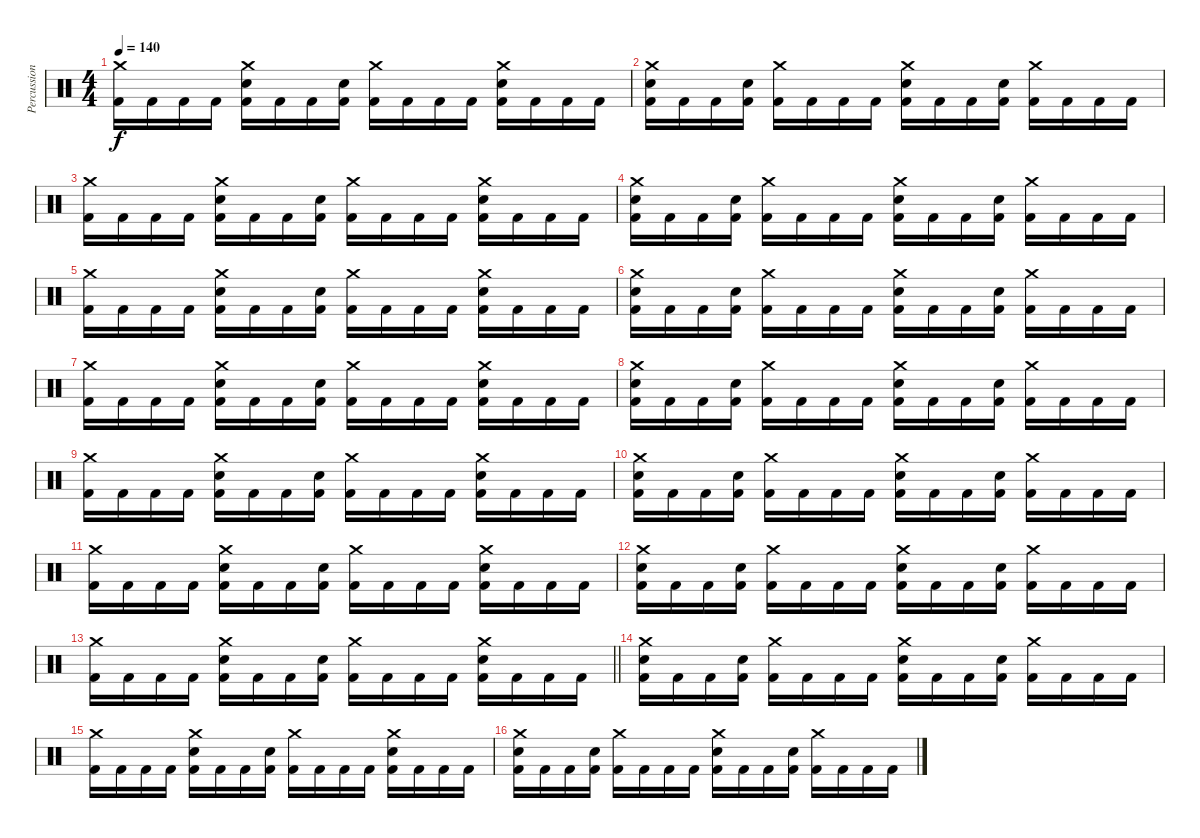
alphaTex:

\track ("Percussion" "Percussion") {instrument percussion}
\staff {score}
\articulation defaults
\ts (4 4)
\tempo 140
\clef neutral
\ks c
("Crash medium (hit)" "Kick (hit) 2").16{dy f} "Kick (hit) 2".16 "Kick (hit) 2".16 "Kick (hit) 2".16 ("Crash medium (hit)" "Snare (hit) 2" "Kick (hit) 2").16 "Kick (hit) 2".16 "Kick (hit) 2".16 ("Snare (hit) 2" "Kick (hit) 2").16 ("Crash medium (hit)" "Kick (hit) 2").16 "Kick (hit) 2".16 "Kick (hit) 2".16 "Kick (hit) 2".16 ("Crash medium (hit)" "Snare (hit) 2" "Kick (hit) 2").16 "Kick (hit) 2".16 "Kick (hit) 2".16 "Kick (hit) 2".16 |
("Crash medium (hit)" "Snare (hit) 2" "Kick (hit) 2").16 "Kick (hit) 2".16 "Kick (hit) 2".16 ("Snare (hit) 2" "Kick (hit) 2").16 ("Crash medium (hit)" "Kick (hit) 2").16 "Kick (hit) 2".16 "Kick (hit) 2".16 "Kick (hit) 2".16 ("Crash medium (hit)" "Snare (hit) 2" "Kick (hit) 2").16 "Kick (hit) 2".16 "Kick (hit) 2".16 ("Snare (hit) 2" "Kick (hit) 2").16 ("Crash medium (hit)" "Kick (hit) 2").16 "Kick (hit) 2".16 "Kick (hit) 2".16 "Kick (hit) 2".16 |
("Crash medium (hit)" "Kick (hit) 2").16 "Kick (hit) 2".16 "Kick (hit) 2".16 "Kick (hit) 2".16 ("Crash medium (hit)" "Snare (hit) 2" "Kick (hit) 2").16 "Kick (hit) 2".16 "Kick (hit) 2".16 ("Snare (hit) 2" "Kick (hit) 2").16 ("Crash medium (hit)" "Kick (hit) 2").16 "Kick (hit) 2".16 "Kick (hit) 2".16 "Kick (hit) 2".16 ("Crash medium (hit)" "Snare (hit) 2" "Kick (hit) 2").16 "Kick (hit) 2".16 "Kick (hit) 2".16 "Kick (hit) 2".16 |
("Crash medium (hit)" "Snare (hit) 2" "Kick (hit) 2").16 "Kick (hit) 2".16 "Kick (hit) 2".16 ("Snare (hit) 2" "Kick (hit) 2").16 ("Crash medium (hit)" "Kick (hit) 2").16 "Kick (hit) 2".16 "Kick (hit) 2".16 "Kick (hit) 2".16 ("Crash medium (hit)" "Snare (hit) 2" "Kick (hit) 2").16 "Kick (hit) 2".16 "Kick (hit) 2".16 ("Snare (hit) 2" "Kick (hit) 2").16 ("Crash medium (hit)" "Kick (hit) 2").16 "Kick (hit) 2".16 "Kick (hit) 2".16 "Kick (hit) 2".16 |
("Crash medium (hit)" "Kick (hit) 2").16 "Kick (hit) 2".16 "Kick (hit) 2".16 "Kick (hit) 2".16 ("Crash medium (hit)" "Snare (hit) 2" "Kick (hit) 2").16 "Kick (hit) 2".16 "Kick (hit) 2".16 ("Snare (hit) 2" "Kick (hit) 2").16 ("Crash medium (hit)" "Kick (hit) 2").16 "Kick (hit) 2".16 "Kick (hit) 2".16 "Kick (hit) 2".16 ("Crash medium (hit)" "Snare (hit) 2" "Kick (hit) 2").16 "Kick (hit) 2".16 "Kick (hit) 2".16 "Kick (hit) 2".16 |
("Crash medium (hit)" "Snare (hit) 2" "Kick (hit) 2").16 "Kick (hit) 2".16 "Kick (hit) 2".16 ("Snare (hit) 2" "Kick (hit) 2").16 ("Crash medium (hit)" "Kick (hit) 2").16 "Kick (hit) 2".16 "Kick (hit) 2".16 "Kick (hit) 2".16 ("Crash medium (hit)" "Snare (hit) 2" "Kick (hit) 2").16 "Kick (hit) 2".16 "Kick (hit) 2".16 ("Snare (hit) 2" "Kick (hit) 2").16 ("Crash medium (hit)" "Kick (hit) 2").16 "Kick (hit) 2".16 "Kick (hit) 2".16 "Kick (hit) 2".16 |
("Crash medium (hit)" "Kick (hit) 2").16 "Kick (hit) 2".16 "Kick (hit) 2".16 "Kick (hit) 2".16 ("Crash medium (hit)" "Snare (hit) 2" "Kick (hit) 2").16 "Kick (hit) 2".16 "Kick (hit) 2".16 ("Snare (hit) 2" "Kick (hit) 2").16 ("Crash medium (hit)" "Kick (hit) 2").16 "Kick (hit) 2".16 "Kick (hit) 2".16 "Kick (hit) 2".16 ("Crash medium (hit)" "Snare (hit) 2" "Kick (hit) 2").16 "Kick (hit) 2".16 "Kick (hit) 2".16 "Kick (hit) 2".16 |
("Crash medium (hit)" "Snare (hit) 2" "Kick (hit) 2").16 "Kick (hit) 2".16 "Kick (hit) 2".16 ("Snare (hit) 2" "Kick (hit) 2").16 ("Crash medium (hit)" "Kick (hit) 2").16 "Kick (hit) 2".16 "Kick (hit) 2".16 "Kick (hit) 2".16 ("Crash medium (hit)" "Snare (hit) 2" "Kick (hit) 2").16 "Kick (hit) 2".16 "Kick (hit) 2".16 ("Snare (hit) 2" "Kick (hit) 2").16 ("Crash medium (hit)" "Kick (hit) 2").16 "Kick (hit) 2".16 "Kick (hit) 2".16 "Kick (hit) 2".16 |
("Crash medium (hit)" "Kick (hit) 2").16 "Kick (hit) 2".16 "Kick (hit) 2".16 "Kick (hit) 2".16 ("Crash medium (hit)" "Snare (hit) 2" "Kick (hit) 2").16 "Kick (hit) 2".16 "Kick (hit) 2".16 ("Snare (hit) 2" "Kick (hit) 2").16 ("Crash medium (hit)" "Kick (hit) 2").16 "Kick (hit) 2".16 "Kick (hit) 2".16 "Kick (hit) 2".16 ("Crash medium (hit)" "Snare (hit) 2" "Kick (hit) 2").16 "Kick (hit) 2".16 "Kick (hit) 2".16 "Kick (hit) 2".16 |
("Crash medium (hit)" "Snare (hit) 2" "Kick (hit) 2").16 "Kick (hit) 2".16 "Kick (hit) 2".16 ("Snare (hit) 2" "Kick (hit) 2").16 ("Crash medium (hit)" "Kick (hit) 2").16 "Kick (hit) 2".16 "Kick (hit) 2".16 "Kick (hit) 2".16 ("Crash medium (hit)" "Snare (hit) 2" "Kick (hit) 2").16 "Kick (hit) 2".16 "Kick (hit) 2".16 ("Snare (hit) 2" "Kick (hit) 2").16 ("Crash medium (hit)" "Kick (hit) 2").16 "Kick (hit) 2".16 "Kick (hit) 2".16 "Kick (hit) 2".16 |
("Crash medium (hit)" "Kick (hit) 2").16 "Kick (hit) 2".16 "Kick (hit) 2".16 "Kick (hit) 2".16 ("Crash medium (hit)" "Snare (hit) 2" "Kick (hit) 2").16 "Kick (hit) 2".16 "Kick (hit) 2".16 ("Snare (hit) 2" "Kick (hit) 2").16 ("Crash medium (hit)" "Kick (hit) 2").16 "Kick (hit) 2".16 "Kick (hit) 2".16 "Kick (hit) 2".16 ("Crash medium (hit)" "Snare (hit) 2" "Kick (hit) 2").16 "Kick (hit) 2".16 "Kick (hit) 2".16 "Kick (hit) 2".16 |
("Crash medium (hit)" "Snare (hit) 2" "Kick (hit) 2").16 "Kick (hit) 2".16 "Kick (hit) 2".16 ("Snare (hit) 2" "Kick (hit) 2").16 ("Crash medium (hit)" "Kick (hit) 2").16 "Kick (hit) 2".16 "Kick (hit) 2".16 "Kick (hit) 2".16 ("Crash medium (hit)" "Snare (hit) 2" "Kick (hit) 2").16 "Kick (hit) 2".16 "Kick (hit) 2".16 ("Snare (hit) 2" "Kick (hit) 2").16 ("Crash medium (hit)" "Kick (hit) 2").16 "Kick (hit) 2".16 "Kick (hit) 2".16 "Kick (hit) 2".16 |
\barLineRight lightlight
("Crash medium (hit)" "Kick (hit) 2").16 "Kick (hit) 2".16 "Kick (hit) 2".16 "Kick (hit) 2".16 ("Crash medium (hit)" "Snare (hit) 2" "Kick (hit) 2").16 "Kick (hit) 2".16 "Kick (hit) 2".16 ("Snare (hit) 2" "Kick (hit) 2").16 ("Crash medium (hit)" "Kick (hit) 2").16 "Kick (hit) 2".16 "Kick (hit) 2".16 "Kick (hit) 2".16 ("Crash medium (hit)" "Snare (hit) 2" "Kick (hit) 2").16 "Kick (hit) 2".16 "Kick (hit) 2".16 "Kick (hit) 2".16 |
("Crash medium (hit)" "Snare (hit) 2" "Kick (hit) 2").16 "Kick (hit) 2".16 "Kick (hit) 2".16 ("Snare (hit) 2" "Kick (hit) 2").16 ("Crash medium (hit)" "Kick (hit) 2").16 "Kick (hit) 2".16 "Kick (hit) 2".16 "Kick (hit) 2".16 ("Crash medium (hit)" "Snare (hit) 2" "Kick (hit) 2").16 "Kick (hit) 2".16 "Kick (hit) 2".16 ("Snare (hit) 2" "Kick (hit) 2").16 ("Crash medium (hit)" "Kick (hit) 2").16 "Kick (hit) 2".16 "Kick (hit) 2".16 "Kick (hit) 2".16 |
("Crash medium (hit)" "Kick (hit) 2").16 "Kick (hit) 2".16 "Kick (hit) 2".16 "Kick (hit) 2".16 ("Crash medium (hit)" "Snare (hit) 2" "Kick (hit) 2").16 "Kick (hit) 2".16 "Kick (hit) 2".16 ("Snare (hit) 2" "Kick (hit) 2").16 ("Crash medium (hit)" "Kick (hit) 2").16 "Kick (hit) 2".16 "Kick (hit) 2".16 "Kick (hit) 2".16 ("Crash medium (hit)" "Snare (hit) 2" "Kick (hit) 2").16 "Kick (hit) 2".16 "Kick (hit) 2".16 "Kick (hit) 2".16 |
("Crash medium (hit)" "Snare (hit) 2" "Kick (hit) 2").16 "Kick (hit) 2".16 "Kick (hit) 2".16 ("Snare (hit) 2" "Kick (hit) 2").16 ("Crash medium (hit)" "Kick (hit) 2").16 "Kick (hit) 2".16 "Kick (hit) 2".16 "Kick (hit) 2".16 ("Crash medium (hit)" "Snare (hit) 2" "Kick (hit) 2").16 "Kick (hit) 2".16 "Kick (hit) 2".16 ("Snare (hit) 2" "Kick (hit) 2").16 ("Crash medium (hit)" "Kick (hit) 2").16 "Kick (hit) 2".16 "Kick (hit) 2".16 "Kick (hit) 2".16
